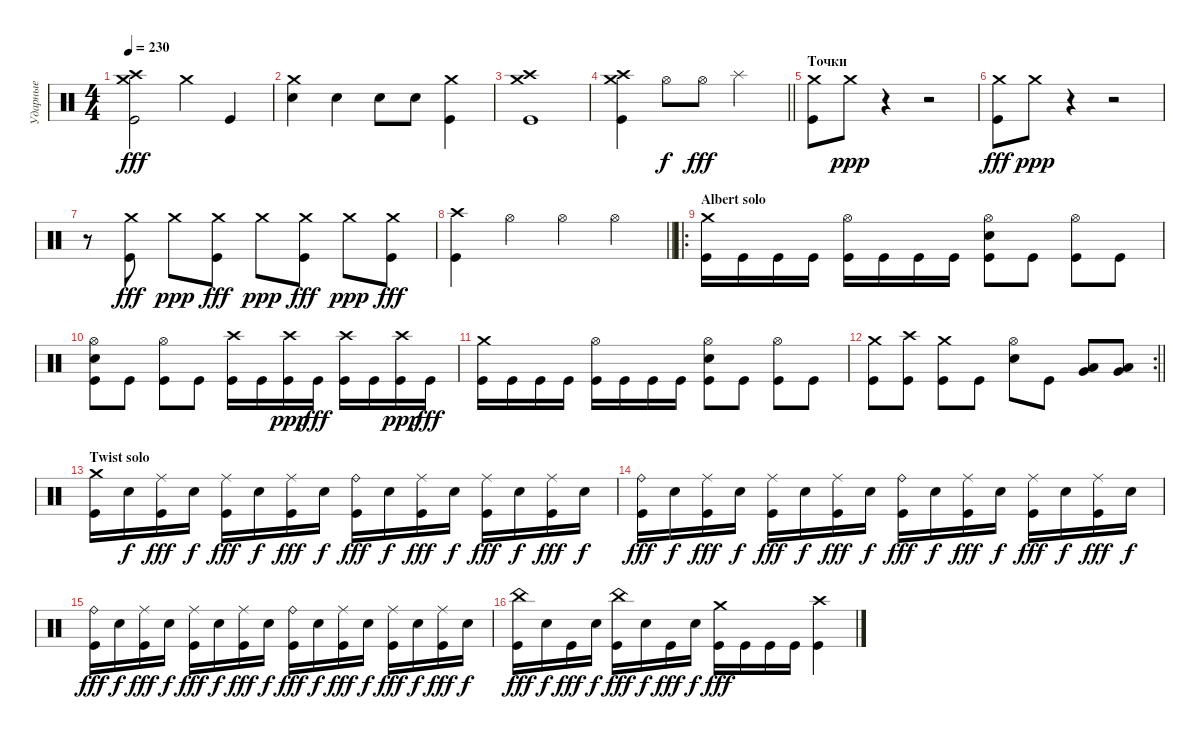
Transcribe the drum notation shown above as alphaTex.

\track ("Ударные" "Ударные") {instrument percussion}
\staff {score}
\articulation defaults
\ts (4 4)
\tempo 230
\clef neutral
\ks c
("Crash medium (hit)" "Crash high (hit)" "Kick (hit)").2{dy fff} "Crash medium (hit)".4 "Kick (hit)".4 |
("Electric Snare (hit)" "Crash medium (hit)").4 "Electric Snare (hit)".4 "Electric Snare (hit)".8 "Electric Snare (hit)".8 ("Crash medium (hit)" "Kick (hit)").4 |
("Crash medium (hit)" "Crash high (hit)" "Kick (hit)").1 |
\barLineRight lightlight
("Crash high (hit)" "Crash medium (hit)" "Kick (hit)").4 "Hi-Hat (open)".8{dy f} "Hi-Hat (open)".8{dy fff} "Splash (hit)".2 |
\section ("" "Точки")
("Crash medium (hit)" "Kick (hit)").8 "Crash medium (hit)".8{dy ppp} r.4 r.2 |
("Crash medium (hit)" "Kick (hit)").8{dy fff} "Crash medium (hit)".8{dy ppp} r.4 r.2 |
r.8 ("Crash medium (hit)" "Kick (hit)").8{dy fff} "Crash medium (hit)".8{dy ppp} ("Crash medium (hit)" "Kick (hit)").8{dy fff} "Crash medium (hit)".8{dy ppp} ("Kick (hit)" "Crash medium (hit)").8{dy fff} "Crash medium (hit)".8{dy ppp} ("Crash medium (hit)" "Kick (hit)").8{dy fff} |
\barLineRight lightlight
("Crash high (hit)" "Kick (hit)").4 "Hi-Hat (open)".4 "Hi-Hat (open)".4 "Hi-Hat (open)".4 |
\ro
\section ("" "Albert solo")
("Kick (hit)" "Crash medium (hit)").16 "Kick (hit)".16 "Kick (hit)".16 "Kick (hit)".16 ("Kick (hit)" "Hi-Hat (open)").16 "Kick (hit)".16 "Kick (hit)".16 "Kick (hit)".16 ("Kick (hit)" "Hi-Hat (open)" "Electric Snare (hit)").8 "Kick (hit)".8 ("Kick (hit)" "Hi-Hat (open)").8 "Kick (hit)".8 |
("Kick (hit)" "Hi-Hat (open)" "Electric Snare (hit)").8 "Kick (hit)".8 ("Kick (hit)" "Hi-Hat (open)").8 "Kick (hit)".8 ("Kick (hit)" "Crash high (hit)").16 "Kick (hit)".16 ("Kick (hit)" "Crash high (hit)").16{dy ppp} "Kick (hit)".16{dy fff} ("Kick (hit)" "Crash high (hit)").16 "Kick (hit)".16 ("Kick (hit)" "Crash high (hit)").16{dy ppp} "Kick (hit)".16{dy fff} |
("Kick (hit)" "Crash medium (hit)").16 "Kick (hit)".16 "Kick (hit)".16 "Kick (hit)".16 ("Kick (hit)" "Hi-Hat (open)").16 "Kick (hit)".16 "Kick (hit)".16 "Kick (hit)".16 ("Kick (hit)" "Hi-Hat (open)" "Electric Snare (hit)").8 "Kick (hit)".8 ("Kick (hit)" "Hi-Hat (open)").8 "Kick (hit)".8 |
\rc 2
\barLineRight lightlight
("Crash medium (hit)" "Kick (hit)").8 ("Crash high (hit)" "Kick (hit)").8 ("Crash medium (hit)" "Kick (hit)").8 "Kick (hit)".8 ("Electric Snare (hit)" "Hi-Hat (open)").8 "Kick (hit)".8 ("Low Tom (hit)" "Very Low Tom (hit)").8 ("Very Low Tom (hit)" "Low Tom (hit)").8 |
\section ("" "Twist solo")
("Crash medium (hit)" "Kick (hit)").16 "Electric Snare (hit)".16{dy f} ("Kick (hit)" "Ride (middle)").16{dy fff} "Electric Snare (hit)".16{dy f} ("Kick (hit)" "Ride (middle)").16{dy fff} "Electric Snare (hit)".16{dy f} ("Kick (hit)" "Ride (middle)").16{dy fff} "Electric Snare (hit)".16{dy f} ("Kick (hit)" "Ride (bell)").16{dy fff} "Electric Snare (hit)".16{dy f} ("Kick (hit)" "Ride (middle)").16{dy fff} "Electric Snare (hit)".16{dy f} ("Kick (hit)" "Ride (middle)").16{dy fff} "Electric Snare (hit)".16{dy f} ("Kick (hit)" "Ride (middle)").16{dy fff} "Electric Snare (hit)".16{dy f} |
("Kick (hit)" "Ride (bell)").16{dy fff} "Electric Snare (hit)".16{dy f} ("Kick (hit)" "Ride (middle)").16{dy fff} "Electric Snare (hit)".16{dy f} ("Kick (hit)" "Ride (middle)").16{dy fff} "Electric Snare (hit)".16{dy f} ("Kick (hit)" "Ride (middle)").16{dy fff} "Electric Snare (hit)".16{dy f} ("Kick (hit)" "Ride (bell)").16{dy fff} "Electric Snare (hit)".16{dy f} ("Kick (hit)" "Ride (middle)").16{dy fff} "Electric Snare (hit)".16{dy f} ("Kick (hit)" "Ride (middle)").16{dy fff} "Electric Snare (hit)".16{dy f} ("Kick (hit)" "Ride (middle)").16{dy fff} "Electric Snare (hit)".16{dy f} |
("Kick (hit)" "Ride (bell)").16{dy fff} "Electric Snare (hit)".16{dy f} ("Kick (hit)" "Ride (middle)").16{dy fff} "Electric Snare (hit)".16{dy f} ("Kick (hit)" "Ride (middle)").16{dy fff} "Electric Snare (hit)".16{dy f} ("Kick (hit)" "Ride (middle)").16{dy fff} "Electric Snare (hit)".16{dy f} ("Kick (hit)" "Ride (bell)").16{dy fff} "Electric Snare (hit)".16{dy f} ("Kick (hit)" "Ride (middle)").16{dy fff} "Electric Snare (hit)".16{dy f} ("Kick (hit)" "Ride (middle)").16{dy fff} "Electric Snare (hit)".16{dy f} ("Kick (hit)" "Ride (middle)").16{dy fff} "Electric Snare (hit)".16{dy f} |
("Kick (hit)" "China (hit)").16{dy fff} "Electric Snare (hit)".16{dy f} "Kick (hit)".16{dy fff} "Electric Snare (hit)".16{dy f} ("Kick (hit)" "China (hit)").16{dy fff} "Electric Snare (hit)".16{dy f} "Kick (hit)".16{dy fff} "Electric Snare (hit)".16{dy f} ("Kick (hit)" "Crash medium (hit)").16{dy fff} "Kick (hit)".16 "Kick (hit)".16 "Kick (hit)".16 ("Crash high (hit)" "Kick (hit)").4
